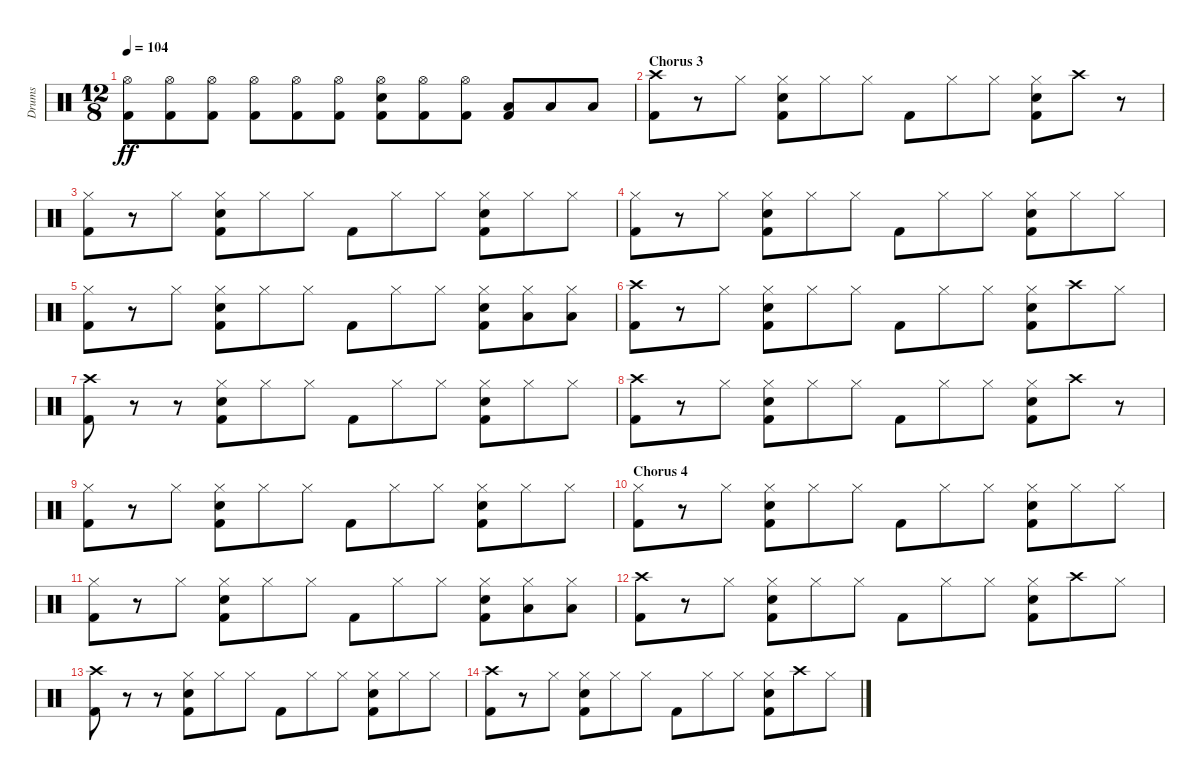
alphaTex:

\track ("Drums" "Drums") {instrument percussion}
\staff {score}
\articulation defaults
\ts (12 8)
\tempo 104
\clef neutral
\ks c
("Hi-Hat (open)" "Kick (hit) 2").8{dy ff} ("Hi-Hat (open)" "Kick (hit) 2").8 ("Hi-Hat (open)" "Kick (hit) 2").8 ("Hi-Hat (open)" "Kick (hit) 2").8 ("Hi-Hat (open)" "Kick (hit) 2").8 ("Hi-Hat (open)" "Kick (hit) 2").8 ("Hi-Hat (open)" "Snare (hit) 2" "Kick (hit) 2").8 ("Hi-Hat (open)" "Kick (hit) 2").8 ("Hi-Hat (open)" "Kick (hit) 2").8 ("Low Tom (hit)" "Kick (hit) 2").8 "Low Tom (hit)".8 "Low Tom (hit)".8 |
\section ("" "Chorus 3")
("Crash high (hit)" "Kick (hit) 2").8 r.8 "Hi-Hat (closed)".8 ("Hi-Hat (closed)" "Snare (hit) 2" "Kick (hit) 2").8 "Hi-Hat (closed)".8 "Hi-Hat (closed)".8 "Kick (hit) 2".8 "Hi-Hat (closed)".8 "Hi-Hat (closed)".8 ("Hi-Hat (closed)" "Snare (hit) 2" "Kick (hit) 2").8 "Crash high (hit)".8 r.8 |
("Hi-Hat (closed)" "Kick (hit) 2").8 r.8 "Hi-Hat (closed)".8 ("Hi-Hat (closed)" "Snare (hit) 2" "Kick (hit) 2").8 "Hi-Hat (closed)".8 "Hi-Hat (closed)".8 "Kick (hit) 2".8 "Hi-Hat (closed)".8 "Hi-Hat (closed)".8 ("Hi-Hat (closed)" "Snare (hit) 2" "Kick (hit) 2").8 "Hi-Hat (closed)".8 "Hi-Hat (closed)".8 |
("Hi-Hat (closed)" "Kick (hit) 2").8 r.8 "Hi-Hat (closed)".8 ("Hi-Hat (closed)" "Snare (hit) 2" "Kick (hit) 2").8 "Hi-Hat (closed)".8 "Hi-Hat (closed)".8 "Kick (hit) 2".8 "Hi-Hat (closed)".8 "Hi-Hat (closed)".8 ("Hi-Hat (closed)" "Snare (hit) 2" "Kick (hit) 2").8 "Hi-Hat (closed)".8 "Hi-Hat (closed)".8 |
("Hi-Hat (closed)" "Kick (hit) 2").8 r.8 "Hi-Hat (closed)".8 ("Hi-Hat (closed)" "Snare (hit) 2" "Kick (hit) 2").8 "Hi-Hat (closed)".8 "Hi-Hat (closed)".8 "Kick (hit) 2".8 "Hi-Hat (closed)".8 "Hi-Hat (closed)".8 ("Hi-Hat (closed)" "Snare (hit) 2" "Kick (hit) 2").8 ("Hi-Hat (closed)" "Low Tom (hit)").8 ("Hi-Hat (closed)" "Low Tom (hit)").8 |
("Crash high (hit)" "Kick (hit) 2").8 r.8 "Hi-Hat (closed)".8 ("Hi-Hat (closed)" "Snare (hit) 2" "Kick (hit) 2").8 "Hi-Hat (closed)".8 "Hi-Hat (closed)".8 "Kick (hit) 2".8 "Hi-Hat (closed)".8 "Hi-Hat (closed)".8 ("Hi-Hat (closed)" "Snare (hit) 2" "Kick (hit) 2").8 "Crash high (hit)".8 "Hi-Hat (closed)".8 |
("Crash high (hit)" "Kick (hit) 2").8 r.8 r.8 ("Hi-Hat (closed)" "Snare (hit) 2" "Kick (hit) 2").8 "Hi-Hat (closed)".8 "Hi-Hat (closed)".8 "Kick (hit) 2".8 "Hi-Hat (closed)".8 "Hi-Hat (closed)".8 ("Hi-Hat (closed)" "Snare (hit) 2" "Kick (hit) 2").8 "Hi-Hat (closed)".8 "Hi-Hat (closed)".8 |
("Crash high (hit)" "Kick (hit) 2").8 r.8 "Hi-Hat (closed)".8 ("Hi-Hat (closed)" "Snare (hit) 2" "Kick (hit) 2").8 "Hi-Hat (closed)".8 "Hi-Hat (closed)".8 "Kick (hit) 2".8 "Hi-Hat (closed)".8 "Hi-Hat (closed)".8 ("Hi-Hat (closed)" "Snare (hit) 2" "Kick (hit) 2").8 "Crash high (hit)".8 r.8 |
("Hi-Hat (closed)" "Kick (hit) 2").8 r.8 "Hi-Hat (closed)".8 ("Hi-Hat (closed)" "Snare (hit) 2" "Kick (hit) 2").8 "Hi-Hat (closed)".8 "Hi-Hat (closed)".8 "Kick (hit) 2".8 "Hi-Hat (closed)".8 "Hi-Hat (closed)".8 ("Hi-Hat (closed)" "Snare (hit) 2" "Kick (hit) 2").8 "Hi-Hat (closed)".8 "Hi-Hat (closed)".8 |
\section ("" "Chorus 4")
("Hi-Hat (closed)" "Kick (hit) 2").8 r.8 "Hi-Hat (closed)".8 ("Hi-Hat (closed)" "Snare (hit) 2" "Kick (hit) 2").8 "Hi-Hat (closed)".8 "Hi-Hat (closed)".8 "Kick (hit) 2".8 "Hi-Hat (closed)".8 "Hi-Hat (closed)".8 ("Hi-Hat (closed)" "Snare (hit) 2" "Kick (hit) 2").8 "Hi-Hat (closed)".8 "Hi-Hat (closed)".8 |
("Hi-Hat (closed)" "Kick (hit) 2").8 r.8 "Hi-Hat (closed)".8 ("Hi-Hat (closed)" "Snare (hit) 2" "Kick (hit) 2").8 "Hi-Hat (closed)".8 "Hi-Hat (closed)".8 "Kick (hit) 2".8 "Hi-Hat (closed)".8 "Hi-Hat (closed)".8 ("Hi-Hat (closed)" "Snare (hit) 2" "Kick (hit) 2").8 ("Hi-Hat (closed)" "Low Tom (hit)").8 ("Hi-Hat (closed)" "Low Tom (hit)").8 |
("Crash high (hit)" "Kick (hit) 2").8 r.8 "Hi-Hat (closed)".8 ("Hi-Hat (closed)" "Snare (hit) 2" "Kick (hit) 2").8 "Hi-Hat (closed)".8 "Hi-Hat (closed)".8 "Kick (hit) 2".8 "Hi-Hat (closed)".8 "Hi-Hat (closed)".8 ("Hi-Hat (closed)" "Snare (hit) 2" "Kick (hit) 2").8 "Crash high (hit)".8 "Hi-Hat (closed)".8 |
("Crash high (hit)" "Kick (hit) 2").8{volume 10} r.8 r.8 ("Hi-Hat (closed)" "Snare (hit) 2" "Kick (hit) 2").8 "Hi-Hat (closed)".8 "Hi-Hat (closed)".8 "Kick (hit) 2".8{volume 6} "Hi-Hat (closed)".8 "Hi-Hat (closed)".8 ("Hi-Hat (closed)" "Snare (hit) 2" "Kick (hit) 2").8 "Hi-Hat (closed)".8 "Hi-Hat (closed)".8 |
("Crash high (hit)" "Kick (hit) 2").8{volume 3} r.8 "Hi-Hat (closed)".8 ("Hi-Hat (closed)" "Snare (hit) 2" "Kick (hit) 2").8 "Hi-Hat (closed)".8 "Hi-Hat (closed)".8 "Kick (hit) 2".8{volume 0} "Hi-Hat (closed)".8 "Hi-Hat (closed)".8 ("Hi-Hat (closed)" "Snare (hit) 2" "Kick (hit) 2").8 "Crash high (hit)".8 "Hi-Hat (closed)".8
